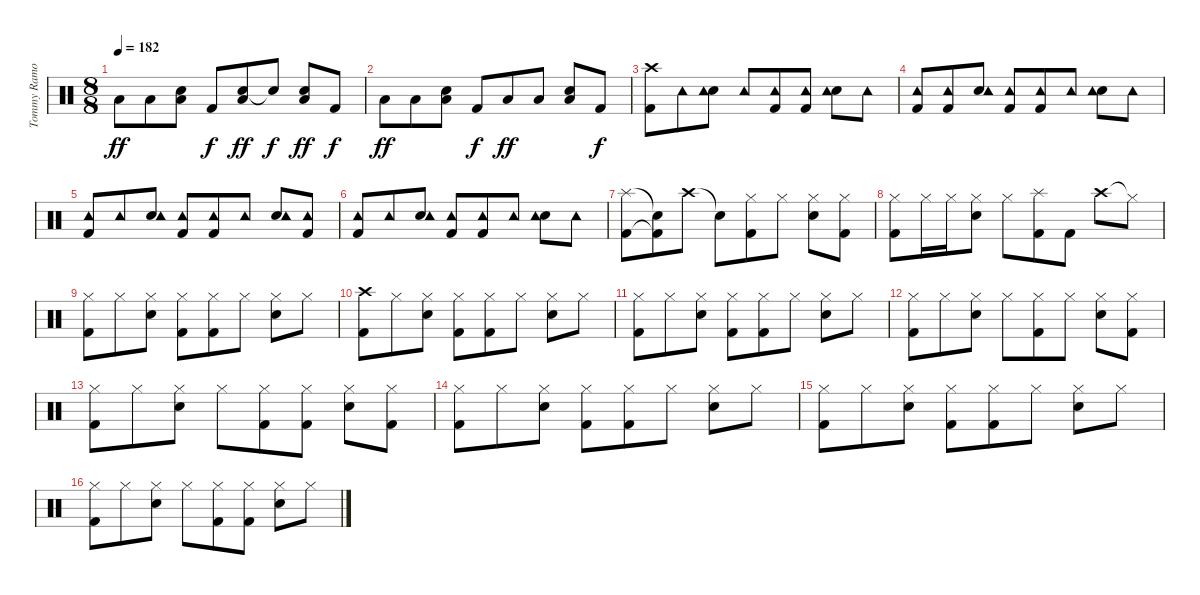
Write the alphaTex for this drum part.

\track ("Tommy Ramone - Drums" "Tommy Ramo") {instrument percussion}
\staff {score}
\articulation defaults
\ts (8 8)
\tempo 182
\clef neutral
\ks c "Low Floor Tom (hit)".8{dy ff} "Low Floor Tom (hit)".8
("Snare (hit) 2" "Low Floor Tom (hit)").8 "Kick (hit) 2".8{dy f} ("Snare (hit) 2" "Low Floor Tom (hit)").8{dy ff} "Electric Snare (hit)"{t}.8{dy f} ("Snare (hit) 2" "Low Floor Tom (hit)").8{dy ff} "Kick (hit) 2".8{dy f} |
"Low Floor Tom (hit)".8{dy ff} "Low Floor Tom (hit)".8 ("Snare (hit) 2" "Low Floor Tom (hit)").8 "Kick (hit) 2".8{dy f} "Low Floor Tom (hit)".8{dy ff} "Low Floor Tom (hit)".8 ("Snare (hit) 2" "Low Floor Tom (hit)").8 "Kick (hit) 2".8{dy f} |
("Kick (hit) 2" "Crash high (hit)").8 "Tambourine (hit)".8 ("Snare (hit) 2" "Tambourine (hit)").8 "Tambourine (hit)".8 ("Kick (hit) 2" "Tambourine (hit)").8 ("Kick (hit) 2" "Tambourine (hit)").8 ("Snare (hit) 2" "Tambourine (hit)").8 "Tambourine (hit)".8 |
("Kick (hit) 2" "Tambourine (hit)").8 ("Kick (hit) 2" "Tambourine (hit)").8 ("Snare (hit) 2" "Tambourine (hit)").8 ("Kick (hit) 2" "Tambourine (hit)").8 ("Kick (hit) 2" "Tambourine (hit)").8 "Tambourine (hit)".8 ("Snare (hit) 2" "Tambourine (hit)").8 "Tambourine (hit)".8 |
("Kick (hit) 2" "Tambourine (hit)").8 "Tambourine (hit)".8 ("Snare (hit) 2" "Tambourine (hit)").8 ("Kick (hit) 2" "Tambourine (hit)").8 ("Kick (hit) 2" "Tambourine (hit)").8 "Tambourine (hit)".8 ("Snare (hit) 2" "Tambourine (hit)").8 ("Kick (hit) 2" "Tambourine (hit)").8 |
("Kick (hit) 2" "Tambourine (hit)").8 "Tambourine (hit)".8 ("Snare (hit) 2" "Tambourine (hit)").8 ("Kick (hit) 2" "Tambourine (hit)").8 ("Kick (hit) 2" "Tambourine (hit)").8 "Tambourine (hit)".8 ("Snare (hit) 2" "Tambourine (hit)").8 "Tambourine (hit)".8 |
("Kick (hit) 2" "Splash (hit)").8 ("Kick (hit) 2"{t} "Electric Snare (hit)"{t}).8 "Crash high (hit)".8 "Electric Snare (hit)"{t}.8 ("Kick (hit) 2" "Hi-Hat (closed)").8 "Hi-Hat (closed)".8 ("Snare (hit) 2" "Hi-Hat (closed)").8 ("Kick (hit) 2" "Hi-Hat (closed)").8 |
("Kick (hit) 2" "Hi-Hat (closed)").8 "Hi-Hat (closed)".16 "Hi-Hat (closed)".16 ("Snare (hit) 2" "Hi-Hat (closed)").8 "Hi-Hat (closed)".8 ("Kick (hit) 2" "Splash (hit)").8 "Kick (hit) 2".8 "Crash high (hit)".8 "Hi-Hat (closed)"{t}.8 |
("Kick (hit) 2" "Hi-Hat (closed)").8 "Hi-Hat (closed)".8 ("Snare (hit) 2" "Hi-Hat (closed)").8 ("Kick (hit) 2" "Hi-Hat (closed)").8 ("Kick (hit) 2" "Hi-Hat (closed)").8 "Hi-Hat (closed)".8 ("Snare (hit) 2" "Hi-Hat (closed)").8 "Hi-Hat (closed)".8 |
("Kick (hit) 2" "Crash high (hit)").8 "Hi-Hat (closed)".8 ("Snare (hit) 2" "Hi-Hat (closed)").8 ("Kick (hit) 2" "Hi-Hat (closed)").8 ("Kick (hit) 2" "Hi-Hat (closed)").8 "Hi-Hat (closed)".8 ("Snare (hit) 2" "Hi-Hat (closed)").8 "Hi-Hat (closed)".8 |
("Kick (hit) 2" "Hi-Hat (closed)").8 "Hi-Hat (closed)".8 ("Snare (hit) 2" "Hi-Hat (closed)").8 ("Kick (hit) 2" "Hi-Hat (closed)").8 ("Kick (hit) 2" "Hi-Hat (closed)").8 "Hi-Hat (closed)".8 ("Snare (hit) 2" "Hi-Hat (closed)").8 "Hi-Hat (closed)".8 |
("Kick (hit) 2" "Hi-Hat (closed)").8 "Hi-Hat (closed)".8 ("Snare (hit) 2" "Hi-Hat (closed)").8 "Hi-Hat (closed)".8 ("Kick (hit) 2" "Hi-Hat (closed)").8 "Hi-Hat (closed)".8 ("Snare (hit) 2" "Hi-Hat (closed)").8 ("Kick (hit) 2" "Hi-Hat (closed)").8 |
("Kick (hit) 2" "Hi-Hat (closed)").8 "Hi-Hat (closed)".8 ("Snare (hit) 2" "Hi-Hat (closed)").8 "Hi-Hat (closed)".8 ("Kick (hit) 2" "Hi-Hat (closed)").8 ("Kick (hit) 2" "Hi-Hat (closed)").8 ("Snare (hit) 2" "Hi-Hat (closed)").8 ("Kick (hit) 2" "Hi-Hat (closed)").8 |
("Kick (hit) 2" "Hi-Hat (closed)").8 "Hi-Hat (closed)".8 ("Snare (hit) 2" "Hi-Hat (closed)").8 ("Kick (hit) 2" "Hi-Hat (closed)").8 ("Kick (hit) 2" "Hi-Hat (closed)").8 "Hi-Hat (closed)".8 ("Snare (hit) 2" "Hi-Hat (closed)").8 "Hi-Hat (closed)".8 |
("Kick (hit) 2" "Hi-Hat (closed)").8 "Hi-Hat (closed)".8 ("Snare (hit) 2" "Hi-Hat (closed)").8 ("Kick (hit) 2" "Hi-Hat (closed)").8 ("Kick (hit) 2" "Hi-Hat (closed)").8 "Hi-Hat (closed)".8 ("Snare (hit) 2" "Hi-Hat (closed)").8 "Hi-Hat (closed)".8 |
("Kick (hit) 2" "Hi-Hat (closed)").8 "Hi-Hat (closed)".8 ("Snare (hit) 2" "Hi-Hat (closed)").8 "Hi-Hat (closed)".8 ("Kick (hit) 2" "Hi-Hat (closed)").8 ("Kick (hit) 2" "Hi-Hat (closed)").8 ("Snare (hit) 2" "Hi-Hat (closed)").8 "Hi-Hat (closed)".8
